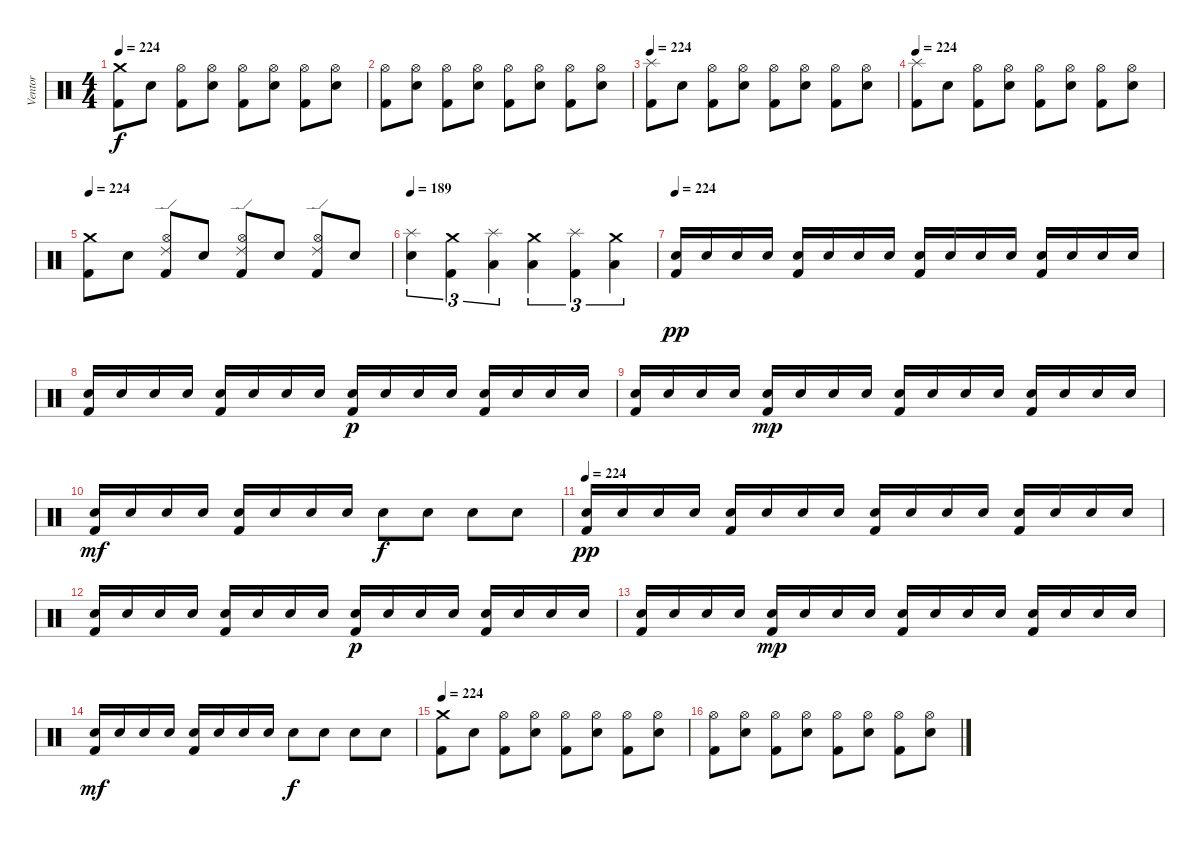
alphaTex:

\track ("Ventor" "Ventor") {instrument percussion}
\staff {score}
\articulation defaults
\ts (4 4)
\tempo 224
\clef neutral
\ks c
("Crash medium (hit)" "Kick (hit) 2").8{dy f} "Electric Snare (hit)".8 ("Hi-Hat (open)" "Kick (hit) 2").8 ("Hi-Hat (open)" "Electric Snare (hit)").8 ("Hi-Hat (open)" "Kick (hit) 2").8 ("Hi-Hat (open)" "Electric Snare (hit)").8 ("Hi-Hat (open)" "Kick (hit) 2").8 ("Hi-Hat (open)" "Electric Snare (hit)").8 |
("Hi-Hat (open)" "Kick (hit) 2").8 ("Hi-Hat (open)" "Electric Snare (hit)").8 ("Hi-Hat (open)" "Kick (hit) 2").8 ("Hi-Hat (open)" "Electric Snare (hit)").8 ("Hi-Hat (open)" "Kick (hit) 2").8 ("Hi-Hat (open)" "Electric Snare (hit)").8 ("Hi-Hat (open)" "Kick (hit) 2").8 ("Hi-Hat (open)" "Electric Snare (hit)").8 |
\tempo 224
("Splash (hit)" "Kick (hit) 2").8 "Electric Snare (hit)".8 ("Hi-Hat (open)" "Kick (hit) 2").8 ("Hi-Hat (open)" "Electric Snare (hit)").8 ("Hi-Hat (open)" "Kick (hit) 2").8 ("Hi-Hat (open)" "Electric Snare (hit)").8 ("Hi-Hat (open)" "Kick (hit) 2").8 ("Hi-Hat (open)" "Electric Snare (hit)").8 |
\tempo 224
("Splash (hit)" "Kick (hit) 2").8 "Electric Snare (hit)".8 ("Hi-Hat (open)" "Kick (hit) 2").8 ("Hi-Hat (open)" "Electric Snare (hit)").8 ("Hi-Hat (open)" "Kick (hit) 2").8 ("Hi-Hat (open)" "Electric Snare (hit)").8 ("Hi-Hat (open)" "Kick (hit) 2").8 ("Hi-Hat (open)" "Electric Snare (hit)").8 |
\tempo 224
("Crash medium (hit)" "Kick (hit) 2").8 "Electric Snare (hit)".8 ("Ride (edge) 2" "Hi-Hat (open)" "Kick (hit) 2").8 "Electric Snare (hit)".8 ("Ride (edge) 2" "Hi-Hat (open)" "Kick (hit) 2").8 "Electric Snare (hit)".8 ("Ride (edge) 2" "Hi-Hat (open)" "Kick (hit) 2").8 "Electric Snare (hit)".8 |
\tempo 189
("Splash (hit)" "Electric Snare (hit)").4{tu (3 2)} ("Crash medium (hit)" "Kick (hit) 2").4{tu (3 2)} ("Splash (hit)" "Low Tom (hit)").4{tu (3 2)} ("Crash medium (hit)" "Low Floor Tom (hit)").4{tu (3 2)} ("Splash (hit)" "Kick (hit) 2").4{tu (3 2)} ("Crash medium (hit)" "Low Floor Tom (hit)").4{tu (3 2)} |
\tempo 224
("Electric Snare (hit)" "Kick (hit) 2").16{dy pp} "Electric Snare (hit)".16 "Electric Snare (hit)".16 "Electric Snare (hit)".16 ("Electric Snare (hit)" "Kick (hit) 2").16 "Electric Snare (hit)".16 "Electric Snare (hit)".16 "Electric Snare (hit)".16 ("Electric Snare (hit)" "Kick (hit) 2").16 "Electric Snare (hit)".16 "Electric Snare (hit)".16 "Electric Snare (hit)".16 ("Electric Snare (hit)" "Kick (hit) 2").16 "Electric Snare (hit)".16 "Electric Snare (hit)".16 "Electric Snare (hit)".16 |
("Electric Snare (hit)" "Kick (hit) 2").16 "Electric Snare (hit)".16 "Electric Snare (hit)".16 "Electric Snare (hit)".16 ("Electric Snare (hit)" "Kick (hit) 2").16 "Electric Snare (hit)".16 "Electric Snare (hit)".16 "Electric Snare (hit)".16 ("Electric Snare (hit)" "Kick (hit) 2").16{dy p} "Electric Snare (hit)".16 "Electric Snare (hit)".16 "Electric Snare (hit)".16 ("Electric Snare (hit)" "Kick (hit) 2").16 "Electric Snare (hit)".16 "Electric Snare (hit)".16 "Electric Snare (hit)".16 |
("Electric Snare (hit)" "Kick (hit) 2").16 "Electric Snare (hit)".16 "Electric Snare (hit)".16 "Electric Snare (hit)".16 ("Electric Snare (hit)" "Kick (hit) 2").16{dy mp} "Electric Snare (hit)".16 "Electric Snare (hit)".16 "Electric Snare (hit)".16 ("Electric Snare (hit)" "Kick (hit) 2").16 "Electric Snare (hit)".16 "Electric Snare (hit)".16 "Electric Snare (hit)".16 ("Electric Snare (hit)" "Kick (hit) 2").16 "Electric Snare (hit)".16 "Electric Snare (hit)".16 "Electric Snare (hit)".16 |
("Electric Snare (hit)" "Kick (hit) 2").16{dy mf} "Electric Snare (hit)".16 "Electric Snare (hit)".16 "Electric Snare (hit)".16 ("Electric Snare (hit)" "Kick (hit) 2").16 "Electric Snare (hit)".16 "Electric Snare (hit)".16 "Electric Snare (hit)".16 "Electric Snare (hit)".8{dy f} "Electric Snare (hit)".8 "Electric Snare (hit)".8 "Electric Snare (hit)".8 |
\tempo 224
("Electric Snare (hit)" "Kick (hit) 2").16{dy pp} "Electric Snare (hit)".16 "Electric Snare (hit)".16 "Electric Snare (hit)".16 ("Electric Snare (hit)" "Kick (hit) 2").16 "Electric Snare (hit)".16 "Electric Snare (hit)".16 "Electric Snare (hit)".16 ("Electric Snare (hit)" "Kick (hit) 2").16 "Electric Snare (hit)".16 "Electric Snare (hit)".16 "Electric Snare (hit)".16 ("Electric Snare (hit)" "Kick (hit) 2").16 "Electric Snare (hit)".16 "Electric Snare (hit)".16 "Electric Snare (hit)".16 |
("Electric Snare (hit)" "Kick (hit) 2").16 "Electric Snare (hit)".16 "Electric Snare (hit)".16 "Electric Snare (hit)".16 ("Electric Snare (hit)" "Kick (hit) 2").16 "Electric Snare (hit)".16 "Electric Snare (hit)".16 "Electric Snare (hit)".16 ("Electric Snare (hit)" "Kick (hit) 2").16{dy p} "Electric Snare (hit)".16 "Electric Snare (hit)".16 "Electric Snare (hit)".16 ("Electric Snare (hit)" "Kick (hit) 2").16 "Electric Snare (hit)".16 "Electric Snare (hit)".16 "Electric Snare (hit)".16 |
("Electric Snare (hit)" "Kick (hit) 2").16 "Electric Snare (hit)".16 "Electric Snare (hit)".16 "Electric Snare (hit)".16 ("Electric Snare (hit)" "Kick (hit) 2").16{dy mp} "Electric Snare (hit)".16 "Electric Snare (hit)".16 "Electric Snare (hit)".16 ("Electric Snare (hit)" "Kick (hit) 2").16 "Electric Snare (hit)".16 "Electric Snare (hit)".16 "Electric Snare (hit)".16 ("Electric Snare (hit)" "Kick (hit) 2").16 "Electric Snare (hit)".16 "Electric Snare (hit)".16 "Electric Snare (hit)".16 |
("Electric Snare (hit)" "Kick (hit) 2").16{dy mf} "Electric Snare (hit)".16 "Electric Snare (hit)".16 "Electric Snare (hit)".16 ("Electric Snare (hit)" "Kick (hit) 2").16 "Electric Snare (hit)".16 "Electric Snare (hit)".16 "Electric Snare (hit)".16 "Electric Snare (hit)".8{dy f} "Electric Snare (hit)".8 "Electric Snare (hit)".8 "Electric Snare (hit)".8 |
\tempo 224
("Crash medium (hit)" "Kick (hit) 2").8 "Electric Snare (hit)".8 ("Hi-Hat (open)" "Kick (hit) 2").8 ("Hi-Hat (open)" "Electric Snare (hit)").8 ("Hi-Hat (open)" "Kick (hit) 2").8 ("Hi-Hat (open)" "Electric Snare (hit)").8 ("Hi-Hat (open)" "Kick (hit) 2").8 ("Hi-Hat (open)" "Electric Snare (hit)").8 |
("Hi-Hat (open)" "Kick (hit) 2").8 ("Hi-Hat (open)" "Electric Snare (hit)").8 ("Hi-Hat (open)" "Kick (hit) 2").8 ("Hi-Hat (open)" "Electric Snare (hit)").8 ("Hi-Hat (open)" "Kick (hit) 2").8 ("Hi-Hat (open)" "Electric Snare (hit)").8 ("Hi-Hat (open)" "Kick (hit) 2").8 ("Hi-Hat (open)" "Electric Snare (hit)").8
